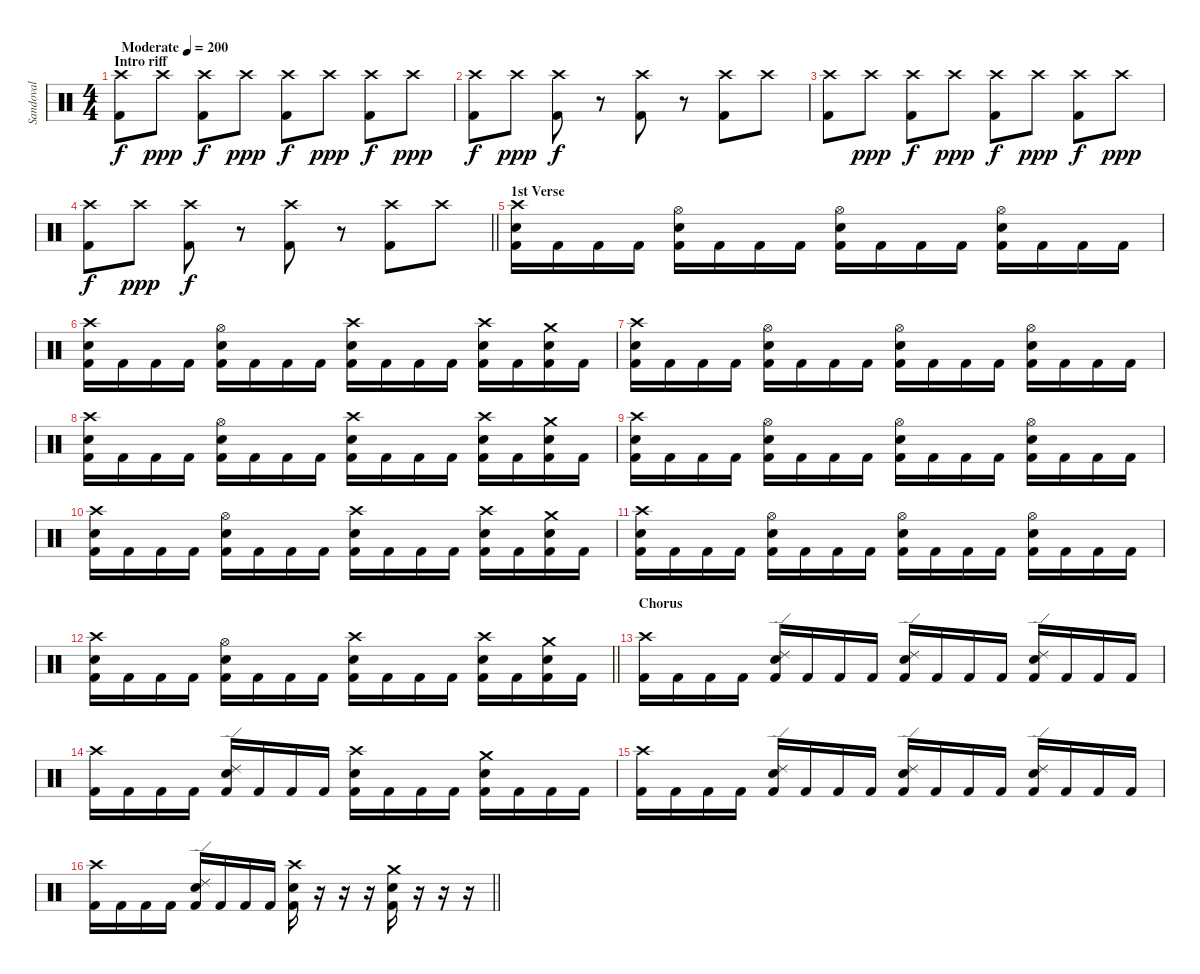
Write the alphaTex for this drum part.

\track ("Sandoval" "Sandoval") {instrument percussion}
\staff {score}
\articulation defaults
\ts (4 4)
\section ("" "Intro riff")
\tempo (200 "Moderate")
\clef neutral
\ks c
("Crash high (hit)" "Kick (hit) 2").8{dy f} "Crash high (hit)".8{dy ppp} ("Crash high (hit)" "Kick (hit) 2").8{dy f} "Crash high (hit)".8{dy ppp} ("Crash high (hit)" "Kick (hit) 2").8{dy f} "Crash high (hit)".8{dy ppp} ("Crash high (hit)" "Kick (hit) 2").8{dy f} "Crash high (hit)".8{dy ppp} |
("Crash high (hit)" "Kick (hit) 2").8{dy f} "Crash high (hit)".8{dy ppp} ("Crash high (hit)" "Kick (hit) 2").8{dy f} r.8 ("Crash high (hit)" "Kick (hit) 2").8 r.8 ("Crash high (hit)" "Kick (hit) 2").8 "Crash high (hit)".8 |
("Crash high (hit)" "Kick (hit) 2").8 "Crash high (hit)".8{dy ppp} ("Crash high (hit)" "Kick (hit) 2").8{dy f} "Crash high (hit)".8{dy ppp} ("Crash high (hit)" "Kick (hit) 2").8{dy f} "Crash high (hit)".8{dy ppp} ("Crash high (hit)" "Kick (hit) 2").8{dy f} "Crash high (hit)".8{dy ppp} |
\barLineRight lightlight
("Crash high (hit)" "Kick (hit) 2").8{dy f} "Crash high (hit)".8{dy ppp} ("Crash high (hit)" "Kick (hit) 2").8{dy f} r.8 ("Crash high (hit)" "Kick (hit) 2").8 r.8 ("Crash high (hit)" "Kick (hit) 2").8 "Crash high (hit)".8 |
\section ("" "1st Verse")
("Crash high (hit)" "Electric Snare (hit)" "Kick (hit) 2").16 "Kick (hit) 2".16 "Kick (hit) 2".16 "Kick (hit) 2".16 ("Hi-Hat (open)" "Electric Snare (hit)" "Kick (hit) 2").16 "Kick (hit) 2".16 "Kick (hit) 2".16 "Kick (hit) 2".16 ("Hi-Hat (open)" "Electric Snare (hit)" "Kick (hit) 2").16 "Kick (hit) 2".16 "Kick (hit) 2".16 "Kick (hit) 2".16 ("Hi-Hat (open)" "Electric Snare (hit)" "Kick (hit) 2").16 "Kick (hit) 2".16 "Kick (hit) 2".16 "Kick (hit) 2".16 |
("Crash high (hit)" "Electric Snare (hit)" "Kick (hit) 2").16 "Kick (hit) 2".16 "Kick (hit) 2".16 "Kick (hit) 2".16 ("Hi-Hat (open)" "Electric Snare (hit)" "Kick (hit) 2").16 "Kick (hit) 2".16 "Kick (hit) 2".16 "Kick (hit) 2".16 ("Crash high (hit)" "Electric Snare (hit)" "Kick (hit) 2").16 "Kick (hit) 2".16 "Kick (hit) 2".16 "Kick (hit) 2".16 ("Crash high (hit)" "Electric Snare (hit)" "Kick (hit) 2").16 "Kick (hit) 2".16 ("Crash medium (hit)" "Electric Snare (hit)" "Kick (hit) 2").16 "Kick (hit) 2".16 |
("Crash high (hit)" "Electric Snare (hit)" "Kick (hit) 2").16 "Kick (hit) 2".16 "Kick (hit) 2".16 "Kick (hit) 2".16 ("Hi-Hat (open)" "Electric Snare (hit)" "Kick (hit) 2").16 "Kick (hit) 2".16 "Kick (hit) 2".16 "Kick (hit) 2".16 ("Hi-Hat (open)" "Electric Snare (hit)" "Kick (hit) 2").16 "Kick (hit) 2".16 "Kick (hit) 2".16 "Kick (hit) 2".16 ("Hi-Hat (open)" "Electric Snare (hit)" "Kick (hit) 2").16 "Kick (hit) 2".16 "Kick (hit) 2".16 "Kick (hit) 2".16 |
("Crash high (hit)" "Electric Snare (hit)" "Kick (hit) 2").16 "Kick (hit) 2".16 "Kick (hit) 2".16 "Kick (hit) 2".16 ("Hi-Hat (open)" "Electric Snare (hit)" "Kick (hit) 2").16 "Kick (hit) 2".16 "Kick (hit) 2".16 "Kick (hit) 2".16 ("Crash high (hit)" "Electric Snare (hit)" "Kick (hit) 2").16 "Kick (hit) 2".16 "Kick (hit) 2".16 "Kick (hit) 2".16 ("Crash high (hit)" "Electric Snare (hit)" "Kick (hit) 2").16 "Kick (hit) 2".16 ("Crash medium (hit)" "Electric Snare (hit)" "Kick (hit) 2").16 "Kick (hit) 2".16 |
("Crash high (hit)" "Electric Snare (hit)" "Kick (hit) 2").16 "Kick (hit) 2".16 "Kick (hit) 2".16 "Kick (hit) 2".16 ("Hi-Hat (open)" "Electric Snare (hit)" "Kick (hit) 2").16 "Kick (hit) 2".16 "Kick (hit) 2".16 "Kick (hit) 2".16 ("Hi-Hat (open)" "Electric Snare (hit)" "Kick (hit) 2").16 "Kick (hit) 2".16 "Kick (hit) 2".16 "Kick (hit) 2".16 ("Hi-Hat (open)" "Electric Snare (hit)" "Kick (hit) 2").16 "Kick (hit) 2".16 "Kick (hit) 2".16 "Kick (hit) 2".16 |
("Crash high (hit)" "Electric Snare (hit)" "Kick (hit) 2").16 "Kick (hit) 2".16 "Kick (hit) 2".16 "Kick (hit) 2".16 ("Hi-Hat (open)" "Electric Snare (hit)" "Kick (hit) 2").16 "Kick (hit) 2".16 "Kick (hit) 2".16 "Kick (hit) 2".16 ("Crash high (hit)" "Electric Snare (hit)" "Kick (hit) 2").16 "Kick (hit) 2".16 "Kick (hit) 2".16 "Kick (hit) 2".16 ("Crash high (hit)" "Electric Snare (hit)" "Kick (hit) 2").16 "Kick (hit) 2".16 ("Crash medium (hit)" "Electric Snare (hit)" "Kick (hit) 2").16 "Kick (hit) 2".16 |
("Crash high (hit)" "Electric Snare (hit)" "Kick (hit) 2").16 "Kick (hit) 2".16 "Kick (hit) 2".16 "Kick (hit) 2".16 ("Hi-Hat (open)" "Electric Snare (hit)" "Kick (hit) 2").16 "Kick (hit) 2".16 "Kick (hit) 2".16 "Kick (hit) 2".16 ("Hi-Hat (open)" "Electric Snare (hit)" "Kick (hit) 2").16 "Kick (hit) 2".16 "Kick (hit) 2".16 "Kick (hit) 2".16 ("Hi-Hat (open)" "Electric Snare (hit)" "Kick (hit) 2").16 "Kick (hit) 2".16 "Kick (hit) 2".16 "Kick (hit) 2".16 |
\barLineRight lightlight
("Crash high (hit)" "Electric Snare (hit)" "Kick (hit) 2").16 "Kick (hit) 2".16 "Kick (hit) 2".16 "Kick (hit) 2".16 ("Hi-Hat (open)" "Electric Snare (hit)" "Kick (hit) 2").16 "Kick (hit) 2".16 "Kick (hit) 2".16 "Kick (hit) 2".16 ("Crash high (hit)" "Electric Snare (hit)" "Kick (hit) 2").16 "Kick (hit) 2".16 "Kick (hit) 2".16 "Kick (hit) 2".16 ("Crash high (hit)" "Electric Snare (hit)" "Kick (hit) 2").16 "Kick (hit) 2".16 ("Crash medium (hit)" "Electric Snare (hit)" "Kick (hit) 2").16 "Kick (hit) 2".16 |
\section ("" "Chorus")
("Crash high (hit)" "Kick (hit) 2").16 "Kick (hit) 2".16 "Kick (hit) 2".16 "Kick (hit) 2".16 ("Ride (edge) 2" "Electric Snare (hit)" "Kick (hit) 2").16 "Kick (hit) 2".16 "Kick (hit) 2".16 "Kick (hit) 2".16 ("Ride (edge) 2" "Electric Snare (hit)" "Kick (hit) 2").16 "Kick (hit) 2".16 "Kick (hit) 2".16 "Kick (hit) 2".16 ("Ride (edge) 2" "Electric Snare (hit)" "Kick (hit) 2").16 "Kick (hit) 2".16 "Kick (hit) 2".16 "Kick (hit) 2".16 |
("Crash high (hit)" "Kick (hit) 2").16 "Kick (hit) 2".16 "Kick (hit) 2".16 "Kick (hit) 2".16 ("Ride (edge) 2" "Electric Snare (hit)" "Kick (hit) 2").16 "Kick (hit) 2".16 "Kick (hit) 2".16 "Kick (hit) 2".16 ("Crash high (hit)" "Electric Snare (hit)" "Kick (hit) 2").16 "Kick (hit) 2".16 "Kick (hit) 2".16 "Kick (hit) 2".16 ("Crash medium (hit)" "Electric Snare (hit)" "Kick (hit) 2").16 "Kick (hit) 2".16 "Kick (hit) 2".16 "Kick (hit) 2".16 |
("Crash high (hit)" "Kick (hit) 2").16 "Kick (hit) 2".16 "Kick (hit) 2".16 "Kick (hit) 2".16 ("Ride (edge) 2" "Electric Snare (hit)" "Kick (hit) 2").16 "Kick (hit) 2".16 "Kick (hit) 2".16 "Kick (hit) 2".16 ("Ride (edge) 2" "Electric Snare (hit)" "Kick (hit) 2").16 "Kick (hit) 2".16 "Kick (hit) 2".16 "Kick (hit) 2".16 ("Ride (edge) 2" "Electric Snare (hit)" "Kick (hit) 2").16 "Kick (hit) 2".16 "Kick (hit) 2".16 "Kick (hit) 2".16 |
\barLineRight lightlight
("Crash high (hit)" "Kick (hit) 2").16 "Kick (hit) 2".16 "Kick (hit) 2".16 "Kick (hit) 2".16 ("Ride (edge) 2" "Electric Snare (hit)" "Kick (hit) 2").16 "Kick (hit) 2".16 "Kick (hit) 2".16 "Kick (hit) 2".16 ("Crash high (hit)" "Electric Snare (hit)" "Kick (hit) 2").16 r.16 r.16 r.16 ("Crash medium (hit)" "Electric Snare (hit)" "Kick (hit) 2").16 r.16 r.16 r.16
